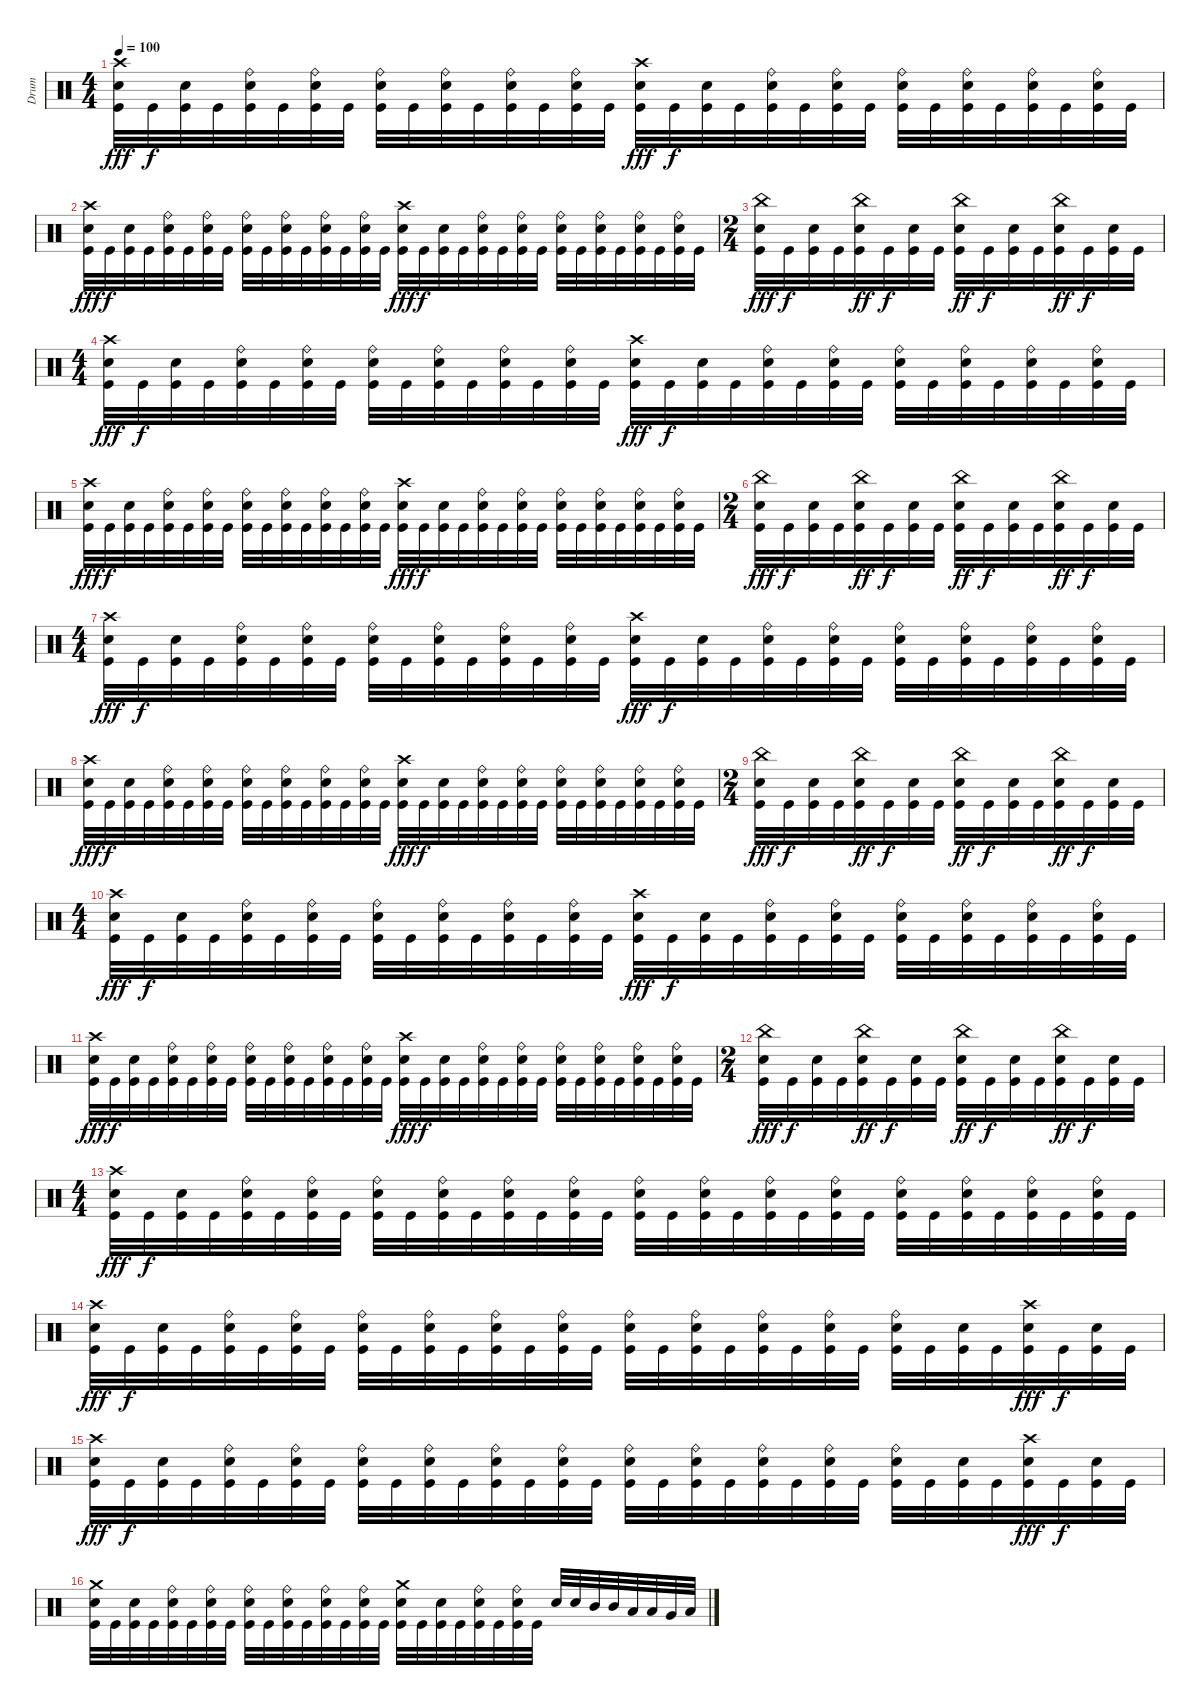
\track ("Drum" "Drum") {instrument percussion}
\staff {score}
\articulation defaults
\ts (4 4)
\tempo 100
\clef neutral
\ks c
("Crash high (hit)" "Electric Snare (hit)" "Kick (hit)").32{dy fff} "Kick (hit)".32{dy f} ("Electric Snare (hit)" "Kick (hit)").32 "Kick (hit)".32 ("Ride (bell)" "Electric Snare (hit)" "Kick (hit)").32 "Kick (hit)".32 ("Ride (bell)" "Electric Snare (hit)" "Kick (hit)").32 "Kick (hit)".32 ("Ride (bell)" "Electric Snare (hit)" "Kick (hit)").32 "Kick (hit)".32 ("Ride (bell)" "Electric Snare (hit)" "Kick (hit)").32 "Kick (hit)".32 ("Ride (bell)" "Electric Snare (hit)" "Kick (hit)").32 "Kick (hit)".32 ("Ride (bell)" "Electric Snare (hit)" "Kick (hit)").32 "Kick (hit)".32 ("Crash high (hit)" "Electric Snare (hit)" "Kick (hit)").32{dy fff} "Kick (hit)".32{dy f} ("Electric Snare (hit)" "Kick (hit)").32 "Kick (hit)".32 ("Ride (bell)" "Electric Snare (hit)" "Kick (hit)").32 "Kick (hit)".32 ("Ride (bell)" "Electric Snare (hit)" "Kick (hit)").32 "Kick (hit)".32 ("Ride (bell)" "Electric Snare (hit)" "Kick (hit)").32 "Kick (hit)".32 ("Ride (bell)" "Electric Snare (hit)" "Kick (hit)").32 "Kick (hit)".32 ("Ride (bell)" "Electric Snare (hit)" "Kick (hit)").32 "Kick (hit)".32 ("Ride (bell)" "Electric Snare (hit)" "Kick (hit)").32 "Kick (hit)".32 |
("Crash high (hit)" "Electric Snare (hit)" "Kick (hit)").32{dy fff} "Kick (hit)".32{dy f} ("Electric Snare (hit)" "Kick (hit)").32 "Kick (hit)".32 ("Ride (bell)" "Electric Snare (hit)" "Kick (hit)").32 "Kick (hit)".32 ("Ride (bell)" "Electric Snare (hit)" "Kick (hit)").32 "Kick (hit)".32 ("Ride (bell)" "Electric Snare (hit)" "Kick (hit)").32 "Kick (hit)".32 ("Ride (bell)" "Electric Snare (hit)" "Kick (hit)").32 "Kick (hit)".32 ("Ride (bell)" "Electric Snare (hit)" "Kick (hit)").32 "Kick (hit)".32 ("Ride (bell)" "Electric Snare (hit)" "Kick (hit)").32 "Kick (hit)".32 ("Crash high (hit)" "Electric Snare (hit)" "Kick (hit)").32{dy fff} "Kick (hit)".32{dy f} ("Electric Snare (hit)" "Kick (hit)").32 "Kick (hit)".32 ("Ride (bell)" "Electric Snare (hit)" "Kick (hit)").32 "Kick (hit)".32 ("Ride (bell)" "Electric Snare (hit)" "Kick (hit)").32 "Kick (hit)".32 ("Ride (bell)" "Electric Snare (hit)" "Kick (hit)").32 "Kick (hit)".32 ("Ride (bell)" "Electric Snare (hit)" "Kick (hit)").32 "Kick (hit)".32 ("Ride (bell)" "Electric Snare (hit)" "Kick (hit)").32 "Kick (hit)".32 ("Ride (bell)" "Electric Snare (hit)" "Kick (hit)").32 "Kick (hit)".32 |
\ts (2 4)
("China (hit)" "Electric Snare (hit)" "Kick (hit)").32{dy fff} "Kick (hit)".32{dy f} ("Electric Snare (hit)" "Kick (hit)").32 "Kick (hit)".32 ("China (hit)" "Electric Snare (hit)" "Kick (hit)").32{dy ff} "Kick (hit)".32{dy f} ("Electric Snare (hit)" "Kick (hit)").32 "Kick (hit)".32 ("China (hit)" "Electric Snare (hit)" "Kick (hit)").32{dy ff} "Kick (hit)".32{dy f} ("Electric Snare (hit)" "Kick (hit)").32 "Kick (hit)".32 ("China (hit)" "Electric Snare (hit)" "Kick (hit)").32{dy ff} "Kick (hit)".32{dy f} ("Electric Snare (hit)" "Kick (hit)").32 "Kick (hit)".32 |
\ts (4 4)
("Crash high (hit)" "Electric Snare (hit)" "Kick (hit)").32{dy fff} "Kick (hit)".32{dy f} ("Electric Snare (hit)" "Kick (hit)").32 "Kick (hit)".32 ("Ride (bell)" "Electric Snare (hit)" "Kick (hit)").32 "Kick (hit)".32 ("Ride (bell)" "Electric Snare (hit)" "Kick (hit)").32 "Kick (hit)".32 ("Ride (bell)" "Electric Snare (hit)" "Kick (hit)").32 "Kick (hit)".32 ("Ride (bell)" "Electric Snare (hit)" "Kick (hit)").32 "Kick (hit)".32 ("Ride (bell)" "Electric Snare (hit)" "Kick (hit)").32 "Kick (hit)".32 ("Ride (bell)" "Electric Snare (hit)" "Kick (hit)").32 "Kick (hit)".32 ("Crash high (hit)" "Electric Snare (hit)" "Kick (hit)").32{dy fff} "Kick (hit)".32{dy f} ("Electric Snare (hit)" "Kick (hit)").32 "Kick (hit)".32 ("Ride (bell)" "Electric Snare (hit)" "Kick (hit)").32 "Kick (hit)".32 ("Ride (bell)" "Electric Snare (hit)" "Kick (hit)").32 "Kick (hit)".32 ("Ride (bell)" "Electric Snare (hit)" "Kick (hit)").32 "Kick (hit)".32 ("Ride (bell)" "Electric Snare (hit)" "Kick (hit)").32 "Kick (hit)".32 ("Ride (bell)" "Electric Snare (hit)" "Kick (hit)").32 "Kick (hit)".32 ("Ride (bell)" "Electric Snare (hit)" "Kick (hit)").32 "Kick (hit)".32 |
("Crash high (hit)" "Electric Snare (hit)" "Kick (hit)").32{dy fff} "Kick (hit)".32{dy f} ("Electric Snare (hit)" "Kick (hit)").32 "Kick (hit)".32 ("Ride (bell)" "Electric Snare (hit)" "Kick (hit)").32 "Kick (hit)".32 ("Ride (bell)" "Electric Snare (hit)" "Kick (hit)").32 "Kick (hit)".32 ("Ride (bell)" "Electric Snare (hit)" "Kick (hit)").32 "Kick (hit)".32 ("Ride (bell)" "Electric Snare (hit)" "Kick (hit)").32 "Kick (hit)".32 ("Ride (bell)" "Electric Snare (hit)" "Kick (hit)").32 "Kick (hit)".32 ("Ride (bell)" "Electric Snare (hit)" "Kick (hit)").32 "Kick (hit)".32 ("Crash high (hit)" "Electric Snare (hit)" "Kick (hit)").32{dy fff} "Kick (hit)".32{dy f} ("Electric Snare (hit)" "Kick (hit)").32 "Kick (hit)".32 ("Ride (bell)" "Electric Snare (hit)" "Kick (hit)").32 "Kick (hit)".32 ("Ride (bell)" "Electric Snare (hit)" "Kick (hit)").32 "Kick (hit)".32 ("Ride (bell)" "Electric Snare (hit)" "Kick (hit)").32 "Kick (hit)".32 ("Ride (bell)" "Electric Snare (hit)" "Kick (hit)").32 "Kick (hit)".32 ("Ride (bell)" "Electric Snare (hit)" "Kick (hit)").32 "Kick (hit)".32 ("Ride (bell)" "Electric Snare (hit)" "Kick (hit)").32 "Kick (hit)".32 |
\ts (2 4)
("China (hit)" "Electric Snare (hit)" "Kick (hit)").32{dy fff} "Kick (hit)".32{dy f} ("Electric Snare (hit)" "Kick (hit)").32 "Kick (hit)".32 ("China (hit)" "Electric Snare (hit)" "Kick (hit)").32{dy ff} "Kick (hit)".32{dy f} ("Electric Snare (hit)" "Kick (hit)").32 "Kick (hit)".32 ("China (hit)" "Electric Snare (hit)" "Kick (hit)").32{dy ff} "Kick (hit)".32{dy f} ("Electric Snare (hit)" "Kick (hit)").32 "Kick (hit)".32 ("China (hit)" "Electric Snare (hit)" "Kick (hit)").32{dy ff} "Kick (hit)".32{dy f} ("Electric Snare (hit)" "Kick (hit)").32 "Kick (hit)".32 |
\ts (4 4)
("Crash high (hit)" "Electric Snare (hit)" "Kick (hit)").32{dy fff} "Kick (hit)".32{dy f} ("Electric Snare (hit)" "Kick (hit)").32 "Kick (hit)".32 ("Ride (bell)" "Electric Snare (hit)" "Kick (hit)").32 "Kick (hit)".32 ("Ride (bell)" "Electric Snare (hit)" "Kick (hit)").32 "Kick (hit)".32 ("Ride (bell)" "Electric Snare (hit)" "Kick (hit)").32 "Kick (hit)".32 ("Ride (bell)" "Electric Snare (hit)" "Kick (hit)").32 "Kick (hit)".32 ("Ride (bell)" "Electric Snare (hit)" "Kick (hit)").32 "Kick (hit)".32 ("Ride (bell)" "Electric Snare (hit)" "Kick (hit)").32 "Kick (hit)".32 ("Crash high (hit)" "Electric Snare (hit)" "Kick (hit)").32{dy fff} "Kick (hit)".32{dy f} ("Electric Snare (hit)" "Kick (hit)").32 "Kick (hit)".32 ("Ride (bell)" "Electric Snare (hit)" "Kick (hit)").32 "Kick (hit)".32 ("Ride (bell)" "Electric Snare (hit)" "Kick (hit)").32 "Kick (hit)".32 ("Ride (bell)" "Electric Snare (hit)" "Kick (hit)").32 "Kick (hit)".32 ("Ride (bell)" "Electric Snare (hit)" "Kick (hit)").32 "Kick (hit)".32 ("Ride (bell)" "Electric Snare (hit)" "Kick (hit)").32 "Kick (hit)".32 ("Ride (bell)" "Electric Snare (hit)" "Kick (hit)").32 "Kick (hit)".32 |
("Crash high (hit)" "Electric Snare (hit)" "Kick (hit)").32{dy fff} "Kick (hit)".32{dy f} ("Electric Snare (hit)" "Kick (hit)").32 "Kick (hit)".32 ("Ride (bell)" "Electric Snare (hit)" "Kick (hit)").32 "Kick (hit)".32 ("Ride (bell)" "Electric Snare (hit)" "Kick (hit)").32 "Kick (hit)".32 ("Ride (bell)" "Electric Snare (hit)" "Kick (hit)").32 "Kick (hit)".32 ("Ride (bell)" "Electric Snare (hit)" "Kick (hit)").32 "Kick (hit)".32 ("Ride (bell)" "Electric Snare (hit)" "Kick (hit)").32 "Kick (hit)".32 ("Ride (bell)" "Electric Snare (hit)" "Kick (hit)").32 "Kick (hit)".32 ("Crash high (hit)" "Electric Snare (hit)" "Kick (hit)").32{dy fff} "Kick (hit)".32{dy f} ("Electric Snare (hit)" "Kick (hit)").32 "Kick (hit)".32 ("Ride (bell)" "Electric Snare (hit)" "Kick (hit)").32 "Kick (hit)".32 ("Ride (bell)" "Electric Snare (hit)" "Kick (hit)").32 "Kick (hit)".32 ("Ride (bell)" "Electric Snare (hit)" "Kick (hit)").32 "Kick (hit)".32 ("Ride (bell)" "Electric Snare (hit)" "Kick (hit)").32 "Kick (hit)".32 ("Ride (bell)" "Electric Snare (hit)" "Kick (hit)").32 "Kick (hit)".32 ("Ride (bell)" "Electric Snare (hit)" "Kick (hit)").32 "Kick (hit)".32 |
\ts (2 4)
("China (hit)" "Electric Snare (hit)" "Kick (hit)").32{dy fff} "Kick (hit)".32{dy f} ("Electric Snare (hit)" "Kick (hit)").32 "Kick (hit)".32 ("China (hit)" "Electric Snare (hit)" "Kick (hit)").32{dy ff} "Kick (hit)".32{dy f} ("Electric Snare (hit)" "Kick (hit)").32 "Kick (hit)".32 ("China (hit)" "Electric Snare (hit)" "Kick (hit)").32{dy ff} "Kick (hit)".32{dy f} ("Electric Snare (hit)" "Kick (hit)").32 "Kick (hit)".32 ("China (hit)" "Electric Snare (hit)" "Kick (hit)").32{dy ff} "Kick (hit)".32{dy f} ("Electric Snare (hit)" "Kick (hit)").32 "Kick (hit)".32 |
\ts (4 4)
("Crash high (hit)" "Electric Snare (hit)" "Kick (hit)").32{dy fff} "Kick (hit)".32{dy f} ("Electric Snare (hit)" "Kick (hit)").32 "Kick (hit)".32 ("Ride (bell)" "Electric Snare (hit)" "Kick (hit)").32 "Kick (hit)".32 ("Ride (bell)" "Electric Snare (hit)" "Kick (hit)").32 "Kick (hit)".32 ("Ride (bell)" "Electric Snare (hit)" "Kick (hit)").32 "Kick (hit)".32 ("Ride (bell)" "Electric Snare (hit)" "Kick (hit)").32 "Kick (hit)".32 ("Ride (bell)" "Electric Snare (hit)" "Kick (hit)").32 "Kick (hit)".32 ("Ride (bell)" "Electric Snare (hit)" "Kick (hit)").32 "Kick (hit)".32 ("Crash high (hit)" "Electric Snare (hit)" "Kick (hit)").32{dy fff} "Kick (hit)".32{dy f} ("Electric Snare (hit)" "Kick (hit)").32 "Kick (hit)".32 ("Ride (bell)" "Electric Snare (hit)" "Kick (hit)").32 "Kick (hit)".32 ("Ride (bell)" "Electric Snare (hit)" "Kick (hit)").32 "Kick (hit)".32 ("Ride (bell)" "Electric Snare (hit)" "Kick (hit)").32 "Kick (hit)".32 ("Ride (bell)" "Electric Snare (hit)" "Kick (hit)").32 "Kick (hit)".32 ("Ride (bell)" "Electric Snare (hit)" "Kick (hit)").32 "Kick (hit)".32 ("Ride (bell)" "Electric Snare (hit)" "Kick (hit)").32 "Kick (hit)".32 |
("Crash high (hit)" "Electric Snare (hit)" "Kick (hit)").32{dy fff} "Kick (hit)".32{dy f} ("Electric Snare (hit)" "Kick (hit)").32 "Kick (hit)".32 ("Ride (bell)" "Electric Snare (hit)" "Kick (hit)").32 "Kick (hit)".32 ("Ride (bell)" "Electric Snare (hit)" "Kick (hit)").32 "Kick (hit)".32 ("Ride (bell)" "Electric Snare (hit)" "Kick (hit)").32 "Kick (hit)".32 ("Ride (bell)" "Electric Snare (hit)" "Kick (hit)").32 "Kick (hit)".32 ("Ride (bell)" "Electric Snare (hit)" "Kick (hit)").32 "Kick (hit)".32 ("Ride (bell)" "Electric Snare (hit)" "Kick (hit)").32 "Kick (hit)".32 ("Crash high (hit)" "Electric Snare (hit)" "Kick (hit)").32{dy fff} "Kick (hit)".32{dy f} ("Electric Snare (hit)" "Kick (hit)").32 "Kick (hit)".32 ("Ride (bell)" "Electric Snare (hit)" "Kick (hit)").32 "Kick (hit)".32 ("Ride (bell)" "Electric Snare (hit)" "Kick (hit)").32 "Kick (hit)".32 ("Ride (bell)" "Electric Snare (hit)" "Kick (hit)").32 "Kick (hit)".32 ("Ride (bell)" "Electric Snare (hit)" "Kick (hit)").32 "Kick (hit)".32 ("Ride (bell)" "Electric Snare (hit)" "Kick (hit)").32 "Kick (hit)".32 ("Ride (bell)" "Electric Snare (hit)" "Kick (hit)").32 "Kick (hit)".32 |
\ts (2 4)
("China (hit)" "Electric Snare (hit)" "Kick (hit)").32{dy fff} "Kick (hit)".32{dy f} ("Electric Snare (hit)" "Kick (hit)").32 "Kick (hit)".32 ("China (hit)" "Electric Snare (hit)" "Kick (hit)").32{dy ff} "Kick (hit)".32{dy f} ("Electric Snare (hit)" "Kick (hit)").32 "Kick (hit)".32 ("China (hit)" "Electric Snare (hit)" "Kick (hit)").32{dy ff} "Kick (hit)".32{dy f} ("Electric Snare (hit)" "Kick (hit)").32 "Kick (hit)".32 ("China (hit)" "Electric Snare (hit)" "Kick (hit)").32{dy ff} "Kick (hit)".32{dy f} ("Electric Snare (hit)" "Kick (hit)").32 "Kick (hit)".32 |
\ts (4 4)
("Crash high (hit)" "Electric Snare (hit)" "Kick (hit)").32{dy fff} "Kick (hit)".32{dy f} ("Electric Snare (hit)" "Kick (hit)").32 "Kick (hit)".32 ("Ride (bell)" "Electric Snare (hit)" "Kick (hit)").32 "Kick (hit)".32 ("Ride (bell)" "Electric Snare (hit)" "Kick (hit)").32 "Kick (hit)".32 ("Ride (bell)" "Electric Snare (hit)" "Kick (hit)").32 "Kick (hit)".32 ("Ride (bell)" "Electric Snare (hit)" "Kick (hit)").32 "Kick (hit)".32 ("Ride (bell)" "Electric Snare (hit)" "Kick (hit)").32 "Kick (hit)".32 ("Ride (bell)" "Electric Snare (hit)" "Kick (hit)").32 "Kick (hit)".32 ("Ride (bell)" "Electric Snare (hit)" "Kick (hit)").32 "Kick (hit)".32 ("Ride (bell)" "Electric Snare (hit)" "Kick (hit)").32 "Kick (hit)".32 ("Ride (bell)" "Electric Snare (hit)" "Kick (hit)").32 "Kick (hit)".32 ("Ride (bell)" "Electric Snare (hit)" "Kick (hit)").32 "Kick (hit)".32 ("Ride (bell)" "Electric Snare (hit)" "Kick (hit)").32 "Kick (hit)".32 ("Ride (bell)" "Electric Snare (hit)" "Kick (hit)").32 "Kick (hit)".32 ("Ride (bell)" "Electric Snare (hit)" "Kick (hit)").32 "Kick (hit)".32 ("Ride (bell)" "Electric Snare (hit)" "Kick (hit)").32 "Kick (hit)".32 |
("Crash high (hit)" "Electric Snare (hit)" "Kick (hit)").32{dy fff} "Kick (hit)".32{dy f} ("Electric Snare (hit)" "Kick (hit)").32 "Kick (hit)".32 ("Ride (bell)" "Electric Snare (hit)" "Kick (hit)").32 "Kick (hit)".32 ("Ride (bell)" "Electric Snare (hit)" "Kick (hit)").32 "Kick (hit)".32 ("Ride (bell)" "Electric Snare (hit)" "Kick (hit)").32 "Kick (hit)".32 ("Ride (bell)" "Electric Snare (hit)" "Kick (hit)").32 "Kick (hit)".32 ("Ride (bell)" "Electric Snare (hit)" "Kick (hit)").32 "Kick (hit)".32 ("Ride (bell)" "Electric Snare (hit)" "Kick (hit)").32 "Kick (hit)".32 ("Ride (bell)" "Electric Snare (hit)" "Kick (hit)").32 "Kick (hit)".32 ("Ride (bell)" "Electric Snare (hit)" "Kick (hit)").32 "Kick (hit)".32 ("Ride (bell)" "Electric Snare (hit)" "Kick (hit)").32 "Kick (hit)".32 ("Ride (bell)" "Electric Snare (hit)" "Kick (hit)").32 "Kick (hit)".32 ("Ride (bell)" "Electric Snare (hit)" "Kick (hit)").32 "Kick (hit)".32 ("Electric Snare (hit)" "Kick (hit)").32 "Kick (hit)".32 ("Crash high (hit)" "Electric Snare (hit)" "Kick (hit)").32{dy fff} "Kick (hit)".32{dy f} ("Electric Snare (hit)" "Kick (hit)").32 "Kick (hit)".32 |
("Crash high (hit)" "Electric Snare (hit)" "Kick (hit)").32{dy fff} "Kick (hit)".32{dy f} ("Electric Snare (hit)" "Kick (hit)").32 "Kick (hit)".32 ("Ride (bell)" "Electric Snare (hit)" "Kick (hit)").32 "Kick (hit)".32 ("Ride (bell)" "Electric Snare (hit)" "Kick (hit)").32 "Kick (hit)".32 ("Ride (bell)" "Electric Snare (hit)" "Kick (hit)").32 "Kick (hit)".32 ("Ride (bell)" "Electric Snare (hit)" "Kick (hit)").32 "Kick (hit)".32 ("Ride (bell)" "Electric Snare (hit)" "Kick (hit)").32 "Kick (hit)".32 ("Ride (bell)" "Electric Snare (hit)" "Kick (hit)").32 "Kick (hit)".32 ("Ride (bell)" "Electric Snare (hit)" "Kick (hit)").32 "Kick (hit)".32 ("Ride (bell)" "Electric Snare (hit)" "Kick (hit)").32 "Kick (hit)".32 ("Ride (bell)" "Electric Snare (hit)" "Kick (hit)").32 "Kick (hit)".32 ("Ride (bell)" "Electric Snare (hit)" "Kick (hit)").32 "Kick (hit)".32 ("Ride (bell)" "Electric Snare (hit)" "Kick (hit)").32 "Kick (hit)".32 ("Electric Snare (hit)" "Kick (hit)").32 "Kick (hit)".32 ("Crash high (hit)" "Electric Snare (hit)" "Kick (hit)").32{dy fff} "Kick (hit)".32{dy f} ("Electric Snare (hit)" "Kick (hit)").32 "Kick (hit)".32 |
("Crash medium (hit)" "Electric Snare (hit)" "Kick (hit)").32 "Kick (hit)".32 ("Electric Snare (hit)" "Kick (hit)").32 "Kick (hit)".32 ("Ride (bell)" "Electric Snare (hit)" "Kick (hit)").32 "Kick (hit)".32 ("Ride (bell)" "Electric Snare (hit)" "Kick (hit)").32 "Kick (hit)".32 ("Ride (bell)" "Electric Snare (hit)" "Kick (hit)").32 "Kick (hit)".32 ("Ride (bell)" "Electric Snare (hit)" "Kick (hit)").32 "Kick (hit)".32 ("Ride (bell)" "Electric Snare (hit)" "Kick (hit)").32 "Kick (hit)".32 ("Ride (bell)" "Electric Snare (hit)" "Kick (hit)").32 "Kick (hit)".32 ("Crash medium (hit)" "Electric Snare (hit)" "Kick (hit)").32 "Kick (hit)".32 ("Electric Snare (hit)" "Kick (hit)").32 "Kick (hit)".32 ("Ride (bell)" "Electric Snare (hit)" "Kick (hit)").32 "Kick (hit)".32 ("Ride (bell)" "Electric Snare (hit)" "Kick (hit)").32 "Kick (hit)".32 "Electric Snare (hit)".32 "Electric Snare (hit)".32 "Mid Tom (hit)".32 "Mid Tom (hit)".32 "Low Tom (hit)".32 "Low Tom (hit)".32 "Very Low Tom (hit)".32 "Low Floor Tom (hit)".32
